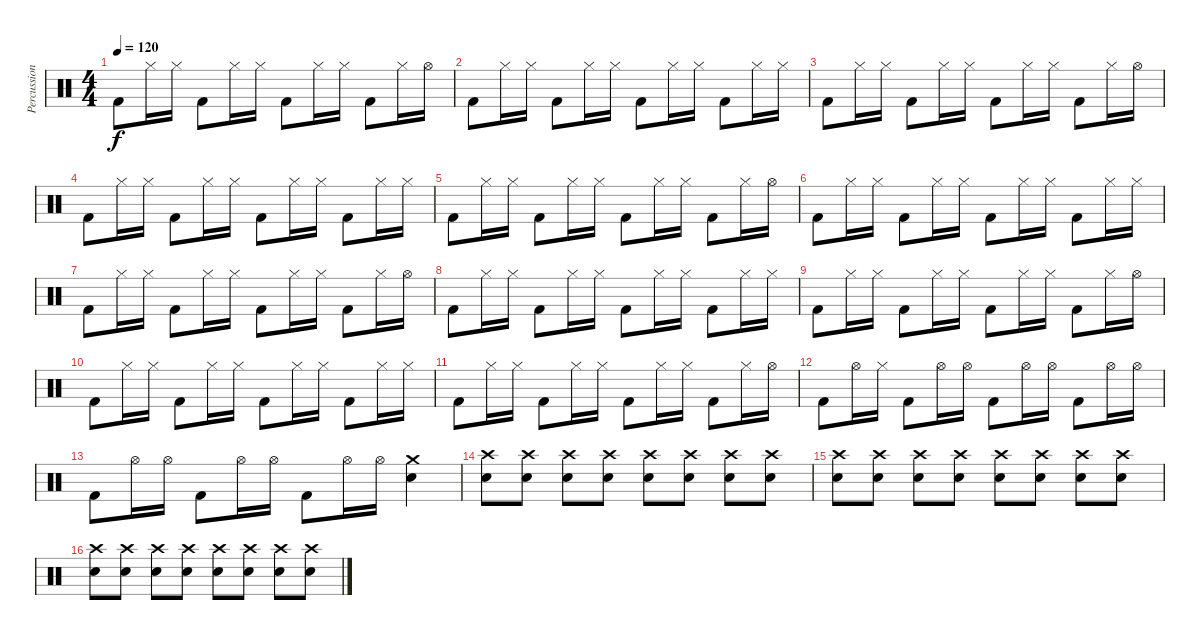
\track ("Percussion" "Percussion") {instrument percussion}
\staff {score}
\articulation defaults
\ts (4 4)
\tempo 120
\clef neutral
\ks c "Kick (hit) 2".8{dy f} "Hi-Hat (closed)".16 "Hi-Hat (closed)".16 "Kick (hit) 2".8 "Hi-Hat (closed)".16 "Hi-Hat (closed)".16 "Kick (hit) 2".8 "Hi-Hat (closed)".16 "Hi-Hat (closed)".16 "Kick (hit) 2".8 "Hi-Hat (closed)".16 "Hi-Hat (open)".16
|
"Kick (hit) 2".8 "Hi-Hat (closed)".16 "Hi-Hat (closed)".16 "Kick (hit) 2".8 "Hi-Hat (closed)".16 "Hi-Hat (closed)".16 "Kick (hit) 2".8 "Hi-Hat (closed)".16 "Hi-Hat (closed)".16 "Kick (hit) 2".8 "Hi-Hat (closed)".16 "Hi-Hat (closed)".16 |
"Kick (hit) 2".8 "Hi-Hat (closed)".16 "Hi-Hat (closed)".16 "Kick (hit) 2".8 "Hi-Hat (closed)".16 "Hi-Hat (closed)".16 "Kick (hit) 2".8 "Hi-Hat (closed)".16 "Hi-Hat (closed)".16 "Kick (hit) 2".8 "Hi-Hat (closed)".16 "Hi-Hat (open)".16 |
"Kick (hit) 2".8 "Hi-Hat (closed)".16 "Hi-Hat (closed)".16 "Kick (hit) 2".8 "Hi-Hat (closed)".16 "Hi-Hat (closed)".16 "Kick (hit) 2".8 "Hi-Hat (closed)".16 "Hi-Hat (closed)".16 "Kick (hit) 2".8 "Hi-Hat (closed)".16 "Hi-Hat (closed)".16 |
"Kick (hit) 2".8 "Hi-Hat (closed)".16 "Hi-Hat (closed)".16 "Kick (hit) 2".8 "Hi-Hat (closed)".16 "Hi-Hat (closed)".16 "Kick (hit) 2".8 "Hi-Hat (closed)".16 "Hi-Hat (closed)".16 "Kick (hit) 2".8 "Hi-Hat (closed)".16 "Hi-Hat (open)".16 |
"Kick (hit) 2".8 "Hi-Hat (closed)".16 "Hi-Hat (closed)".16 "Kick (hit) 2".8 "Hi-Hat (closed)".16 "Hi-Hat (closed)".16 "Kick (hit) 2".8 "Hi-Hat (closed)".16 "Hi-Hat (closed)".16 "Kick (hit) 2".8 "Hi-Hat (closed)".16 "Hi-Hat (closed)".16 |
"Kick (hit) 2".8 "Hi-Hat (closed)".16 "Hi-Hat (closed)".16 "Kick (hit) 2".8 "Hi-Hat (closed)".16 "Hi-Hat (closed)".16 "Kick (hit) 2".8 "Hi-Hat (closed)".16 "Hi-Hat (closed)".16 "Kick (hit) 2".8 "Hi-Hat (closed)".16 "Hi-Hat (open)".16 |
"Kick (hit) 2".8 "Hi-Hat (closed)".16 "Hi-Hat (closed)".16 "Kick (hit) 2".8 "Hi-Hat (closed)".16 "Hi-Hat (closed)".16 "Kick (hit) 2".8 "Hi-Hat (closed)".16 "Hi-Hat (closed)".16 "Kick (hit) 2".8 "Hi-Hat (closed)".16 "Hi-Hat (closed)".16 |
"Kick (hit) 2".8 "Hi-Hat (closed)".16 "Hi-Hat (closed)".16 "Kick (hit) 2".8 "Hi-Hat (closed)".16 "Hi-Hat (closed)".16 "Kick (hit) 2".8 "Hi-Hat (closed)".16 "Hi-Hat (closed)".16 "Kick (hit) 2".8 "Hi-Hat (closed)".16 "Hi-Hat (open)".16 |
"Kick (hit) 2".8 "Hi-Hat (closed)".16 "Hi-Hat (closed)".16 "Kick (hit) 2".8 "Hi-Hat (closed)".16 "Hi-Hat (closed)".16 "Kick (hit) 2".8 "Hi-Hat (closed)".16 "Hi-Hat (closed)".16 "Kick (hit) 2".8 "Hi-Hat (closed)".16 "Hi-Hat (closed)".16 |
"Kick (hit) 2".8 "Hi-Hat (closed)".16 "Hi-Hat (closed)".16 "Kick (hit) 2".8 "Hi-Hat (closed)".16 "Hi-Hat (closed)".16 "Kick (hit) 2".8 "Hi-Hat (closed)".16 "Hi-Hat (closed)".16 "Kick (hit) 2".8 "Hi-Hat (closed)".16 "Hi-Hat (open)".16 |
"Kick (hit) 2".8 "Hi-Hat (open)".16 "Hi-Hat (closed)".16 "Kick (hit) 2".8 "Hi-Hat (open)".16 "Hi-Hat (open)".16 "Kick (hit) 2".8 "Hi-Hat (open)".16 "Hi-Hat (open)".16 "Kick (hit) 2".8 "Hi-Hat (open)".16 "Hi-Hat (open)".16 |
"Kick (hit) 2".8 "Hi-Hat (open)".16 "Hi-Hat (open)".16 "Kick (hit) 2".8 "Hi-Hat (open)".16 "Hi-Hat (open)".16 "Kick (hit) 2".8 "Hi-Hat (open)".16 "Hi-Hat (open)".16 ("Crash medium (hit)" "Electric Snare (hit)").4 |
("Crash high (hit)" "Electric Snare (hit)").8 ("Crash high (hit)" "Electric Snare (hit)").8 ("Crash high (hit)" "Electric Snare (hit)").8 ("Crash high (hit)" "Electric Snare (hit)").8 ("Crash high (hit)" "Electric Snare (hit)").8 ("Crash high (hit)" "Electric Snare (hit)").8 ("Crash high (hit)" "Electric Snare (hit)").8 ("Crash high (hit)" "Electric Snare (hit)").8 |
("Crash high (hit)" "Electric Snare (hit)").8 ("Crash high (hit)" "Electric Snare (hit)").8 ("Crash high (hit)" "Electric Snare (hit)").8 ("Crash high (hit)" "Electric Snare (hit)").8 ("Crash high (hit)" "Electric Snare (hit)").8 ("Crash high (hit)" "Electric Snare (hit)").8 ("Crash high (hit)" "Electric Snare (hit)").8 ("Crash high (hit)" "Electric Snare (hit)").8 |
("Crash high (hit)" "Electric Snare (hit)").8 ("Crash high (hit)" "Electric Snare (hit)").8 ("Crash high (hit)" "Electric Snare (hit)").8 ("Crash high (hit)" "Electric Snare (hit)").8 ("Crash high (hit)" "Electric Snare (hit)").8 ("Crash high (hit)" "Electric Snare (hit)").8 ("Crash high (hit)" "Electric Snare (hit)").8 ("Crash high (hit)" "Electric Snare (hit)").8
